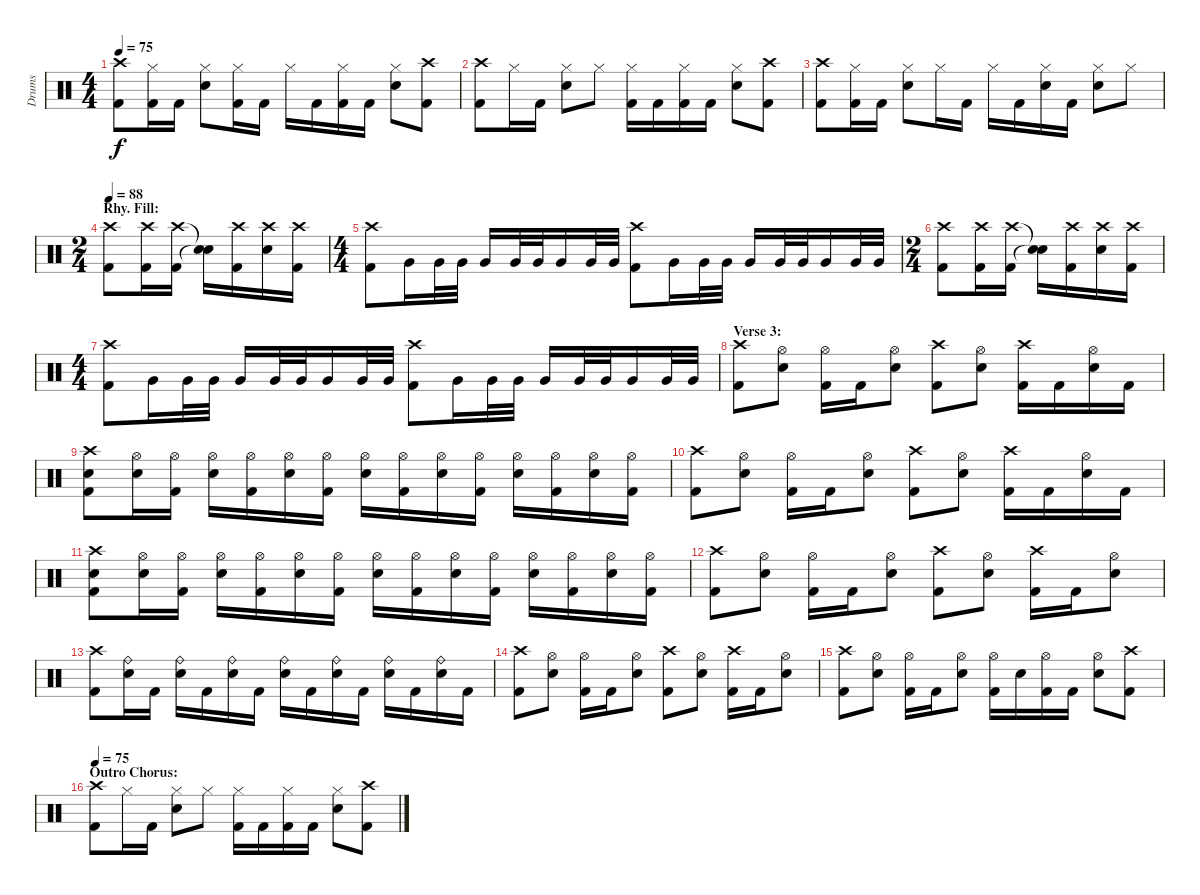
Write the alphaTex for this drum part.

\track ("Drums" "Drums") {instrument percussion}
\staff {score}
\articulation defaults
\ts (4 4)
\tempo 75
\clef neutral
\ks c
("Crash high (hit)" "Kick (hit) 2").8{dy f} ("Hi-Hat (closed)" "Kick (hit) 2").16 "Kick (hit) 2".16 ("Hi-Hat (closed)" "Electric Snare (hit)").8 ("Hi-Hat (closed)" "Kick (hit) 2").16 "Kick (hit) 2".16 "Hi-Hat (closed)".16 "Kick (hit) 2".16 ("Hi-Hat (closed)" "Kick (hit) 2").16 "Kick (hit) 2".16 ("Hi-Hat (closed)" "Electric Snare (hit)").8 ("Crash high (hit)" "Kick (hit) 2").8 |
("Crash high (hit)" "Kick (hit) 2").8 "Hi-Hat (closed)".16 "Kick (hit) 2".16 ("Hi-Hat (closed)" "Electric Snare (hit)").8 "Hi-Hat (closed)".8 ("Hi-Hat (closed)" "Kick (hit) 2").16 "Kick (hit) 2".16 ("Hi-Hat (closed)" "Kick (hit) 2").16 "Kick (hit) 2".16 ("Hi-Hat (closed)" "Electric Snare (hit)").8 ("Crash high (hit)" "Kick (hit) 2").8 |
("Crash high (hit)" "Kick (hit) 2").8 ("Hi-Hat (closed)" "Kick (hit) 2").16 "Kick (hit) 2".16 ("Hi-Hat (closed)" "Electric Snare (hit)").8 "Hi-Hat (closed)".16 "Kick (hit) 2".16 "Hi-Hat (closed)".16 "Kick (hit) 2".16 ("Hi-Hat (closed)" "Electric Snare (hit)").16 "Kick (hit) 2".16 ("Hi-Hat (closed)" "Electric Snare (hit)").8 "Hi-Hat (closed)".8 |
\ts (2 4)
\section ("" "Rhy. Fill:")
\tempo 88
("Crash high (hit)" "Kick (hit) 2").8 ("Crash high (hit)" "Kick (hit) 2").16 ("Crash high (hit)" "Kick (hit) 2").16 ("Snare (hit)"{t} "Snare (hit)"{t}).16 ("Crash high (hit)" "Kick (hit) 2").16 ("Crash high (hit)" "Electric Snare (hit)").16 ("Crash high (hit)" "Kick (hit) 2").16 |
\ts (4 4)
("Crash high (hit)" "Kick (hit) 2").8 "Very Low Tom (hit)".16 "Very Low Tom (hit)".32 "Very Low Tom (hit)".32 "Very Low Tom (hit)".16 "Very Low Tom (hit)".32 "Very Low Tom (hit)".32 "Very Low Tom (hit)".16 "Very Low Tom (hit)".32 "Very Low Tom (hit)".32 ("Crash high (hit)" "Kick (hit) 2").8 "Very Low Tom (hit)".16 "Very Low Tom (hit)".32 "Very Low Tom (hit)".32 "Very Low Tom (hit)".16 "Very Low Tom (hit)".32 "Very Low Tom (hit)".32 "Very Low Tom (hit)".16 "Very Low Tom (hit)".32 "Very Low Tom (hit)".32 |
\ts (2 4)
("Crash high (hit)" "Kick (hit) 2").8 ("Crash high (hit)" "Kick (hit) 2").16 ("Crash high (hit)" "Kick (hit) 2").16 ("Snare (hit)"{t} "Snare (hit)"{t}).16 ("Crash high (hit)" "Kick (hit) 2").16 ("Crash high (hit)" "Electric Snare (hit)").16 ("Crash high (hit)" "Kick (hit) 2").16 |
\ts (4 4)
("Crash high (hit)" "Kick (hit) 2").8 "Very Low Tom (hit)".16 "Very Low Tom (hit)".32 "Very Low Tom (hit)".32 "Very Low Tom (hit)".16 "Very Low Tom (hit)".32 "Very Low Tom (hit)".32 "Very Low Tom (hit)".16 "Very Low Tom (hit)".32 "Very Low Tom (hit)".32 ("Crash high (hit)" "Kick (hit) 2").8 "Very Low Tom (hit)".16 "Very Low Tom (hit)".32 "Very Low Tom (hit)".32 "Very Low Tom (hit)".16 "Very Low Tom (hit)".32 "Very Low Tom (hit)".32 "Very Low Tom (hit)".16 "Very Low Tom (hit)".32 "Very Low Tom (hit)".32 |
\section ("" "Verse 3:")
("Crash high (hit)" "Kick (hit) 2").8 ("Hi-Hat (open)" "Electric Snare (hit)").8 ("Hi-Hat (open)" "Kick (hit) 2").16 "Kick (hit) 2".16 ("Hi-Hat (open)" "Electric Snare (hit)").8 ("Crash high (hit)" "Kick (hit) 2").8 ("Hi-Hat (open)" "Electric Snare (hit)").8 ("Crash high (hit)" "Kick (hit) 2").16 "Kick (hit) 2".16 ("Hi-Hat (open)" "Electric Snare (hit)").16 "Kick (hit) 2".16 |
("Crash high (hit)" "Electric Snare (hit)" "Kick (hit) 2").8 ("Hi-Hat (open)" "Electric Snare (hit)").16 ("Hi-Hat (open)" "Kick (hit) 2").16 ("Hi-Hat (open)" "Electric Snare (hit)").16 ("Hi-Hat (open)" "Kick (hit) 2").16 ("Hi-Hat (open)" "Electric Snare (hit)").16 ("Hi-Hat (open)" "Kick (hit) 2").16 ("Hi-Hat (open)" "Electric Snare (hit)").16 ("Hi-Hat (open)" "Kick (hit) 2").16 ("Hi-Hat (open)" "Electric Snare (hit)").16 ("Hi-Hat (open)" "Kick (hit) 2").16 ("Hi-Hat (open)" "Electric Snare (hit)").16 ("Hi-Hat (open)" "Kick (hit) 2").16 ("Hi-Hat (open)" "Electric Snare (hit)").16 ("Hi-Hat (open)" "Kick (hit) 2").16 |
("Crash high (hit)" "Kick (hit) 2").8 ("Hi-Hat (open)" "Electric Snare (hit)").8 ("Hi-Hat (open)" "Kick (hit) 2").16 "Kick (hit) 2".16 ("Hi-Hat (open)" "Electric Snare (hit)").8 ("Crash high (hit)" "Kick (hit) 2").8 ("Hi-Hat (open)" "Electric Snare (hit)").8 ("Crash high (hit)" "Kick (hit) 2").16 "Kick (hit) 2".16 ("Hi-Hat (open)" "Electric Snare (hit)").16 "Kick (hit) 2".16 |
("Crash high (hit)" "Electric Snare (hit)" "Kick (hit) 2").8 ("Hi-Hat (open)" "Electric Snare (hit)").16 ("Hi-Hat (open)" "Kick (hit) 2").16 ("Hi-Hat (open)" "Electric Snare (hit)").16 ("Hi-Hat (open)" "Kick (hit) 2").16 ("Hi-Hat (open)" "Electric Snare (hit)").16 ("Hi-Hat (open)" "Kick (hit) 2").16 ("Hi-Hat (open)" "Electric Snare (hit)").16 ("Hi-Hat (open)" "Kick (hit) 2").16 ("Hi-Hat (open)" "Electric Snare (hit)").16 ("Hi-Hat (open)" "Kick (hit) 2").16 ("Hi-Hat (open)" "Electric Snare (hit)").16 ("Hi-Hat (open)" "Kick (hit) 2").16 ("Hi-Hat (open)" "Electric Snare (hit)").16 ("Hi-Hat (open)" "Kick (hit) 2").16 |
("Crash high (hit)" "Kick (hit) 2").8 ("Hi-Hat (open)" "Electric Snare (hit)").8 ("Hi-Hat (open)" "Kick (hit) 2").16 "Kick (hit) 2".16 ("Hi-Hat (open)" "Electric Snare (hit)").8 ("Crash high (hit)" "Kick (hit) 2").8 ("Hi-Hat (open)" "Electric Snare (hit)").8 ("Crash high (hit)" "Kick (hit) 2").16 "Kick (hit) 2".16 ("Hi-Hat (open)" "Electric Snare (hit)").8 |
("Crash high (hit)" "Kick (hit) 2").8 ("Ride (bell)" "Electric Snare (hit)").16 "Kick (hit) 2".16 ("Ride (bell)" "Electric Snare (hit)").16 "Kick (hit) 2".16 ("Ride (bell)" "Electric Snare (hit)").16 "Kick (hit) 2".16 ("Ride (bell)" "Electric Snare (hit)").16 "Kick (hit) 2".16 ("Ride (bell)" "Electric Snare (hit)").16 "Kick (hit) 2".16 ("Ride (bell)" "Electric Snare (hit)").16 "Kick (hit) 2".16 ("Ride (bell)" "Electric Snare (hit)").16 "Kick (hit) 2".16 |
("Crash high (hit)" "Kick (hit) 2").8 ("Hi-Hat (open)" "Electric Snare (hit)").8 ("Hi-Hat (open)" "Kick (hit) 2").16 "Kick (hit) 2".16 ("Hi-Hat (open)" "Electric Snare (hit)").8 ("Crash high (hit)" "Kick (hit) 2").8 ("Hi-Hat (open)" "Electric Snare (hit)").8 ("Crash high (hit)" "Kick (hit) 2").16 "Kick (hit) 2".16 ("Hi-Hat (open)" "Electric Snare (hit)").8 |
("Crash high (hit)" "Kick (hit) 2").8 ("Hi-Hat (open)" "Electric Snare (hit)").8 ("Hi-Hat (open)" "Kick (hit) 2").16 "Kick (hit) 2".16 ("Hi-Hat (open)" "Electric Snare (hit)").8 ("Hi-Hat (open)" "Kick (hit) 2").16 "Electric Snare (hit)".16 ("Hi-Hat (open)" "Kick (hit) 2").16 "Kick (hit) 2".16 ("Hi-Hat (open)" "Electric Snare (hit)").8 ("Crash high (hit)" "Kick (hit) 2").8 |
\section ("" "Outro Chorus:")
\tempo 75
("Crash high (hit)" "Kick (hit) 2").8 "Hi-Hat (closed)".16 "Kick (hit) 2".16 ("Hi-Hat (closed)" "Electric Snare (hit)").8 "Hi-Hat (closed)".8 ("Hi-Hat (closed)" "Kick (hit) 2").16 "Kick (hit) 2".16 ("Hi-Hat (closed)" "Kick (hit) 2").16 "Kick (hit) 2".16 ("Hi-Hat (closed)" "Electric Snare (hit)").8 ("Crash high (hit)" "Kick (hit) 2").8
